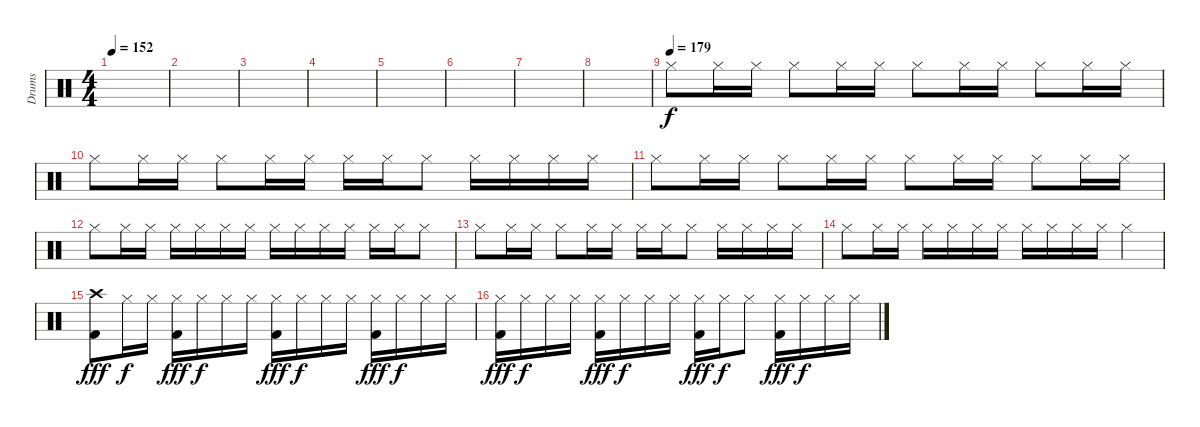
\track ("Drums" "Drums") {instrument percussion}
\staff {score}
\articulation defaults
\ts (4 4)
\tempo 152
\clef neutral
\ks c
|
|
|
|
|
|
|
|
\tempo (179)
"Hi-Hat (closed)".8{dy f} "Hi-Hat (closed)".16 "Hi-Hat (closed)".16 "Hi-Hat (closed)".8 "Hi-Hat (closed)".16 "Hi-Hat (closed)".16 "Hi-Hat (closed)".8 "Hi-Hat (closed)".16 "Hi-Hat (closed)".16 "Hi-Hat (closed)".8 "Hi-Hat (closed)".16 "Hi-Hat (closed)".16 |
"Hi-Hat (closed)".8 "Hi-Hat (closed)".16 "Hi-Hat (closed)".16 "Hi-Hat (closed)".8 "Hi-Hat (closed)".16 "Hi-Hat (closed)".16 "Hi-Hat (closed)".16 "Hi-Hat (closed)".16 "Hi-Hat (closed)".8 "Hi-Hat (closed)".16 "Hi-Hat (closed)".16 "Hi-Hat (closed)".16 "Hi-Hat (closed)".16 |
"Hi-Hat (closed)".8 "Hi-Hat (closed)".16 "Hi-Hat (closed)".16 "Hi-Hat (closed)".8 "Hi-Hat (closed)".16 "Hi-Hat (closed)".16 "Hi-Hat (closed)".8 "Hi-Hat (closed)".16 "Hi-Hat (closed)".16 "Hi-Hat (closed)".8 "Hi-Hat (closed)".16 "Hi-Hat (closed)".16 |
"Hi-Hat (closed)".8 "Hi-Hat (closed)".16 "Hi-Hat (closed)".16 "Hi-Hat (closed)".16 "Hi-Hat (closed)".16 "Hi-Hat (closed)".16 "Hi-Hat (closed)".16 "Hi-Hat (closed)".16 "Hi-Hat (closed)".16 "Hi-Hat (closed)".16 "Hi-Hat (closed)".16 "Hi-Hat (closed)".16 "Hi-Hat (closed)".16 "Hi-Hat (closed)".8 |
"Hi-Hat (closed)".8 "Hi-Hat (closed)".16 "Hi-Hat (closed)".16 "Hi-Hat (closed)".8 "Hi-Hat (closed)".16 "Hi-Hat (closed)".16 "Hi-Hat (closed)".16 "Hi-Hat (closed)".16 "Hi-Hat (closed)".8 "Hi-Hat (closed)".16 "Hi-Hat (closed)".16 "Hi-Hat (closed)".16 "Hi-Hat (closed)".16 |
"Hi-Hat (closed)".8 "Hi-Hat (closed)".16 "Hi-Hat (closed)".16 "Hi-Hat (closed)".16 "Hi-Hat (closed)".16 "Hi-Hat (closed)".16 "Hi-Hat (closed)".16 "Hi-Hat (closed)".16 "Hi-Hat (closed)".16 "Hi-Hat (closed)".16 "Hi-Hat (closed)".16 "Hi-Hat (closed)".4 |
("Crash high (hit)" "Kick (hit) 2").8{dy fff} "Hi-Hat (closed)".16{dy f} "Hi-Hat (closed)".16 ("Hi-Hat (closed)" "Kick (hit) 2").16{dy fff} "Hi-Hat (closed)".16{dy f} "Hi-Hat (closed)".16 "Hi-Hat (closed)".16 ("Hi-Hat (closed)" "Kick (hit) 2").16{dy fff} "Hi-Hat (closed)".16{dy f} "Hi-Hat (closed)".16 "Hi-Hat (closed)".16 ("Hi-Hat (closed)" "Kick (hit) 2").16{dy fff} "Hi-Hat (closed)".16{dy f} "Hi-Hat (closed)".16 "Hi-Hat (closed)".16 |
("Hi-Hat (closed)" "Kick (hit) 2").16{dy fff} "Hi-Hat (closed)".16{dy f} "Hi-Hat (closed)".16 "Hi-Hat (closed)".16 ("Hi-Hat (closed)" "Kick (hit) 2").16{dy fff} "Hi-Hat (closed)".16{dy f} "Hi-Hat (closed)".16 "Hi-Hat (closed)".16 ("Hi-Hat (closed)" "Kick (hit) 2").16{dy fff} "Hi-Hat (closed)".16{dy f} "Hi-Hat (closed)".8 ("Hi-Hat (closed)" "Kick (hit) 2").16{dy fff} "Hi-Hat (closed)".16{dy f} "Hi-Hat (closed)".16 "Hi-Hat (closed)".16
